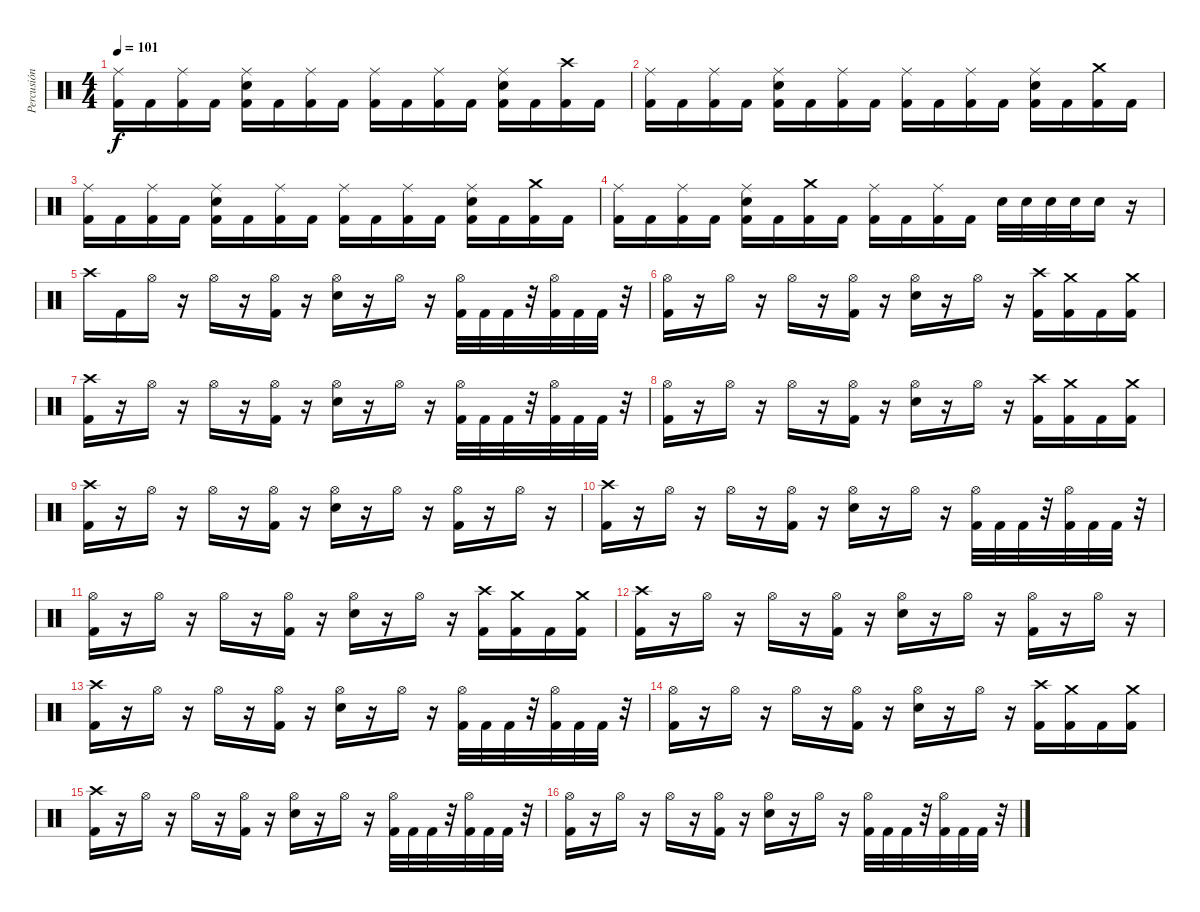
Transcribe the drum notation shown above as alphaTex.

\track ("Percusión" "Percusión") {instrument percussion}
\staff {score}
\articulation defaults
\ts (4 4)
\tempo 101
\clef neutral
\ks c
("Ride (middle)" "Kick (hit) 2").16{dy f} "Kick (hit) 2".16 ("Ride (middle)" "Kick (hit) 2").16 "Kick (hit) 2".16 ("Ride (middle)" "Electric Snare (hit)" "Kick (hit) 2").16 "Kick (hit) 2".16 ("Ride (middle)" "Kick (hit) 2").16 "Kick (hit) 2".16 ("Ride (middle)" "Kick (hit) 2").16 "Kick (hit) 2".16 ("Ride (middle)" "Kick (hit) 2").16 "Kick (hit) 2".16 ("Ride (middle)" "Electric Snare (hit)" "Kick (hit) 2").16 "Kick (hit) 2".16 ("Crash high (hit)" "Kick (hit) 2").16 "Kick (hit) 2".16 |
("Ride (middle)" "Kick (hit) 2").16 "Kick (hit) 2".16 ("Ride (middle)" "Kick (hit) 2").16 "Kick (hit) 2".16 ("Ride (middle)" "Electric Snare (hit)" "Kick (hit) 2").16 "Kick (hit) 2".16 ("Ride (middle)" "Kick (hit) 2").16 "Kick (hit) 2".16 ("Ride (middle)" "Kick (hit) 2").16 "Kick (hit) 2".16 ("Ride (middle)" "Kick (hit) 2").16 "Kick (hit) 2".16 ("Ride (middle)" "Electric Snare (hit)" "Kick (hit) 2").16 "Kick (hit) 2".16 ("Crash medium (hit)" "Kick (hit) 2").16 "Kick (hit) 2".16 |
("Ride (middle)" "Kick (hit) 2").16 "Kick (hit) 2".16 ("Ride (middle)" "Kick (hit) 2").16 "Kick (hit) 2".16 ("Ride (middle)" "Electric Snare (hit)" "Kick (hit) 2").16 "Kick (hit) 2".16 ("Ride (middle)" "Kick (hit) 2").16 "Kick (hit) 2".16 ("Ride (middle)" "Kick (hit) 2").16 "Kick (hit) 2".16 ("Ride (middle)" "Kick (hit) 2").16 "Kick (hit) 2".16 ("Ride (middle)" "Electric Snare (hit)" "Kick (hit) 2").16 "Kick (hit) 2".16 ("Crash medium (hit)" "Kick (hit) 2").16 "Kick (hit) 2".16 |
("Ride (middle)" "Kick (hit) 2").16 "Kick (hit) 2".16 ("Ride (middle)" "Kick (hit) 2").16 "Kick (hit) 2".16 ("Electric Snare (hit)" "Ride (middle)" "Kick (hit) 2").16 "Kick (hit) 2".16 ("Crash medium (hit)" "Kick (hit) 2").16 "Kick (hit) 2".16 ("Ride (middle)" "Kick (hit) 2").16 "Kick (hit) 2".16 ("Ride (middle)" "Kick (hit) 2").16 "Kick (hit) 2".16 "Electric Snare (hit)".32 "Electric Snare (hit)".32 "Electric Snare (hit)".32 "Electric Snare (hit)".32 "Electric Snare (hit)".16 r.16 |
"Crash high (hit)".16 "Kick (hit) 2".16 "Hi-Hat (open)".16 r.16 "Hi-Hat (open)".16 r.16 ("Hi-Hat (open)" "Kick (hit) 2").16 r.16 ("Hi-Hat (open)" "Electric Snare (hit)").16 r.16 "Hi-Hat (open)".16 r.16 ("Hi-Hat (open)" "Kick (hit) 2").32 "Kick (hit) 2".32 "Kick (hit) 2".32 r.32 ("Hi-Hat (open)" "Kick (hit) 2").32 "Kick (hit) 2".32 "Kick (hit) 2".32 r.32 |
("Hi-Hat (open)" "Kick (hit) 2").16 r.16 "Hi-Hat (open)".16 r.16 "Hi-Hat (open)".16 r.16 ("Hi-Hat (open)" "Kick (hit) 2").16 r.16 ("Hi-Hat (open)" "Electric Snare (hit)").16 r.16 "Hi-Hat (open)".16 r.16 ("Crash high (hit)" "Kick (hit) 2").16 ("Crash medium (hit)" "Kick (hit) 2").16 "Kick (hit) 2".16 ("Crash medium (hit)" "Kick (hit) 2").16 |
("Crash high (hit)" "Kick (hit) 2").16 r.16 "Hi-Hat (open)".16 r.16 "Hi-Hat (open)".16 r.16 ("Hi-Hat (open)" "Kick (hit) 2").16 r.16 ("Hi-Hat (open)" "Electric Snare (hit)").16 r.16 "Hi-Hat (open)".16 r.16 ("Hi-Hat (open)" "Kick (hit) 2").32 "Kick (hit) 2".32 "Kick (hit) 2".32 r.32 ("Hi-Hat (open)" "Kick (hit) 2").32 "Kick (hit) 2".32 "Kick (hit) 2".32 r.32 |
("Hi-Hat (open)" "Kick (hit) 2").16 r.16 "Hi-Hat (open)".16 r.16 "Hi-Hat (open)".16 r.16 ("Hi-Hat (open)" "Kick (hit) 2").16 r.16 ("Hi-Hat (open)" "Electric Snare (hit)").16 r.16 "Hi-Hat (open)".16 r.16 ("Crash high (hit)" "Kick (hit) 2").16 ("Crash medium (hit)" "Kick (hit) 2").16 "Kick (hit) 2".16 ("Crash medium (hit)" "Kick (hit) 2").16 |
("Crash high (hit)" "Kick (hit) 2").16 r.16 "Hi-Hat (open)".16 r.16 "Hi-Hat (open)".16 r.16 ("Hi-Hat (open)" "Kick (hit) 2").16 r.16 ("Hi-Hat (open)" "Electric Snare (hit)").16 r.16 "Hi-Hat (open)".16 r.16 ("Hi-Hat (open)" "Kick (hit) 2").16 r.16 "Hi-Hat (open)".16 r.16 |
("Crash high (hit)" "Kick (hit) 2").16 r.16 "Hi-Hat (open)".16 r.16 "Hi-Hat (open)".16 r.16 ("Hi-Hat (open)" "Kick (hit) 2").16 r.16 ("Hi-Hat (open)" "Electric Snare (hit)").16 r.16 "Hi-Hat (open)".16 r.16 ("Hi-Hat (open)" "Kick (hit) 2").32 "Kick (hit) 2".32 "Kick (hit) 2".32 r.32 ("Hi-Hat (open)" "Kick (hit) 2").32 "Kick (hit) 2".32 "Kick (hit) 2".32 r.32 |
("Hi-Hat (open)" "Kick (hit) 2").16 r.16 "Hi-Hat (open)".16 r.16 "Hi-Hat (open)".16 r.16 ("Hi-Hat (open)" "Kick (hit) 2").16 r.16 ("Hi-Hat (open)" "Electric Snare (hit)").16 r.16 "Hi-Hat (open)".16 r.16 ("Crash high (hit)" "Kick (hit) 2").16 ("Crash medium (hit)" "Kick (hit) 2").16 "Kick (hit) 2".16 ("Crash medium (hit)" "Kick (hit) 2").16 |
("Crash high (hit)" "Kick (hit) 2").16 r.16 "Hi-Hat (open)".16 r.16 "Hi-Hat (open)".16 r.16 ("Hi-Hat (open)" "Kick (hit) 2").16 r.16 ("Hi-Hat (open)" "Electric Snare (hit)").16 r.16 "Hi-Hat (open)".16 r.16 ("Hi-Hat (open)" "Kick (hit) 2").16 r.16 "Hi-Hat (open)".16 r.16 |
("Crash high (hit)" "Kick (hit) 2").16 r.16 "Hi-Hat (open)".16 r.16 "Hi-Hat (open)".16 r.16 ("Hi-Hat (open)" "Kick (hit) 2").16 r.16 ("Hi-Hat (open)" "Electric Snare (hit)").16 r.16 "Hi-Hat (open)".16 r.16 ("Hi-Hat (open)" "Kick (hit) 2").32 "Kick (hit) 2".32 "Kick (hit) 2".32 r.32 ("Hi-Hat (open)" "Kick (hit) 2").32 "Kick (hit) 2".32 "Kick (hit) 2".32 r.32 |
("Hi-Hat (open)" "Kick (hit) 2").16 r.16 "Hi-Hat (open)".16 r.16 "Hi-Hat (open)".16 r.16 ("Hi-Hat (open)" "Kick (hit) 2").16 r.16 ("Hi-Hat (open)" "Electric Snare (hit)").16 r.16 "Hi-Hat (open)".16 r.16 ("Crash high (hit)" "Kick (hit) 2").16 ("Crash medium (hit)" "Kick (hit) 2").16 "Kick (hit) 2".16 ("Crash medium (hit)" "Kick (hit) 2").16 |
("Crash high (hit)" "Kick (hit) 2").16 r.16 "Hi-Hat (open)".16 r.16 "Hi-Hat (open)".16 r.16 ("Hi-Hat (open)" "Kick (hit) 2").16 r.16 ("Hi-Hat (open)" "Electric Snare (hit)").16 r.16 "Hi-Hat (open)".16 r.16 ("Hi-Hat (open)" "Kick (hit) 2").32 "Kick (hit) 2".32 "Kick (hit) 2".32 r.32 ("Hi-Hat (open)" "Kick (hit) 2").32 "Kick (hit) 2".32 "Kick (hit) 2".32 r.32 |
("Hi-Hat (open)" "Kick (hit) 2").16 r.16 "Hi-Hat (open)".16 r.16 "Hi-Hat (open)".16 r.16 ("Hi-Hat (open)" "Kick (hit) 2").16 r.16 ("Hi-Hat (open)" "Electric Snare (hit)").16 r.16 "Hi-Hat (open)".16 r.16 ("Hi-Hat (open)" "Kick (hit) 2").32 "Kick (hit) 2".32 "Kick (hit) 2".32 r.32 ("Hi-Hat (open)" "Kick (hit) 2").32 "Kick (hit) 2".32 "Kick (hit) 2".32 r.32
